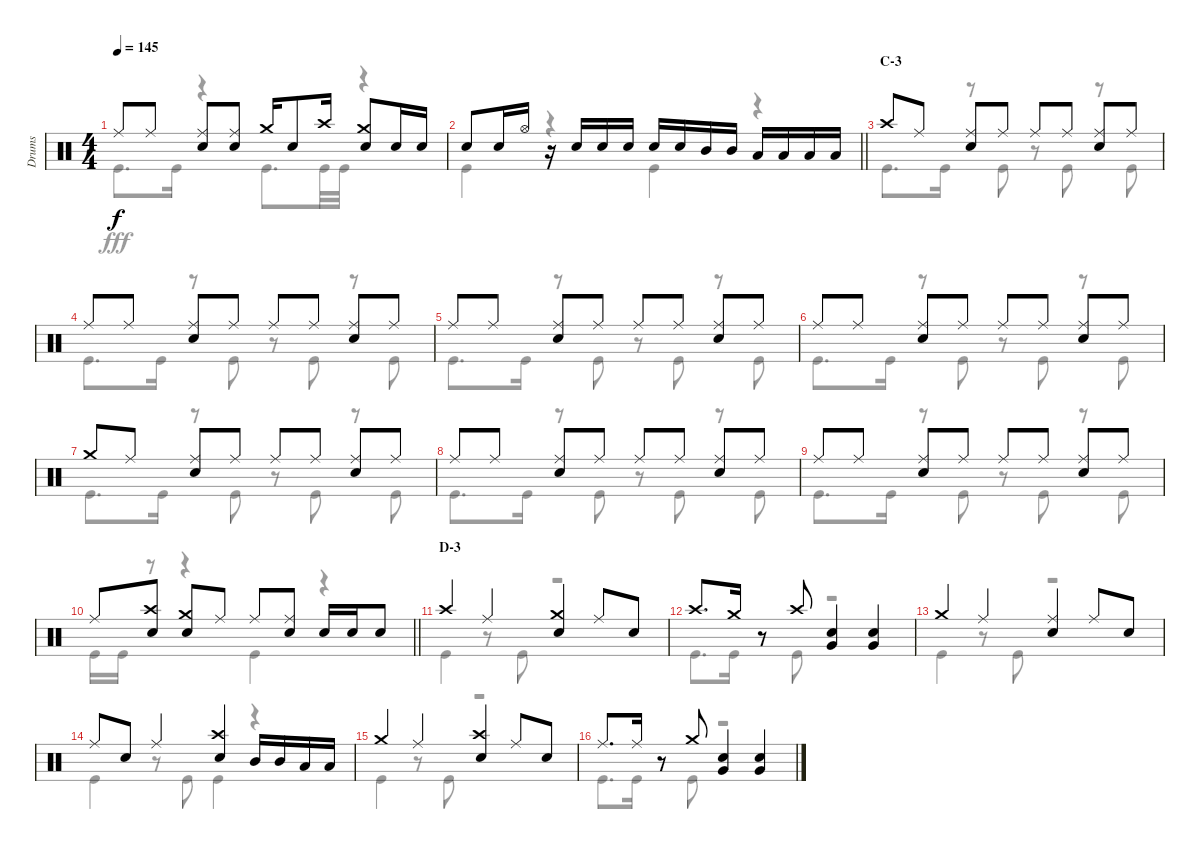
\track ("Drums" "Drums") {instrument percussion}
\staff {score}
\articulation defaults
\voice
\ts (4 4)
\tempo 145
\clef neutral
\ks c "Ride (middle)".8{dy f} "Ride (middle)".8
("Ride (middle)" "Snare (hit) 2").8 ("Ride (middle)" "Snare (hit) 2").8 "Crash medium (hit)".16 "Snare (hit) 2".8 "Crash high (hit)".16 ("Crash medium (hit)" "Snare (hit) 2").8 "Snare (hit) 2".16 "Snare (hit) 2".16 |
\barLineRight lightlight "Snare (hit) 2".8 "Snare (hit) 2".16 "Hi-Hat (open)".16
r.16 "Snare (hit) 2".16 "Snare (hit) 2".16 "Snare (hit) 2".16 "Snare (hit) 2".16 "Snare (hit) 2".16 "Mid Tom (hit)".16 "Mid Tom (hit)".16 "Low Tom (hit)".16 "Low Tom (hit)".16 "Low Tom (hit)".16 "Low Tom (hit)".16 |
\section ("" "C-3")
"Crash high (hit)".8 "Ride (middle)".8 ("Ride (middle)" "Snare (hit) 2").8 "Ride (middle)".8 "Ride (middle)".8 "Ride (middle)".8 ("Ride (middle)" "Snare (hit) 2").8 "Ride (middle)".8 |
"Ride (middle)".8 "Ride (middle)".8 ("Ride (middle)" "Snare (hit) 2").8 "Ride (middle)".8 "Ride (middle)".8 "Ride (middle)".8 ("Ride (middle)" "Snare (hit) 2").8 "Ride (middle)".8 |
"Ride (middle)".8 "Ride (middle)".8 ("Ride (middle)" "Snare (hit) 2").8 "Ride (middle)".8 "Ride (middle)".8 "Ride (middle)".8 ("Ride (middle)" "Snare (hit) 2").8 "Ride (middle)".8 |
"Ride (middle)".8 "Ride (middle)".8 ("Ride (middle)" "Snare (hit) 2").8 "Ride (middle)".8 "Ride (middle)".8 "Ride (middle)".8 ("Ride (middle)" "Snare (hit) 2").8 "Ride (middle)".8 |
"Crash medium (hit)".8 "Ride (middle)".8 ("Ride (middle)" "Snare (hit) 2").8 "Ride (middle)".8 "Ride (middle)".8 "Ride (middle)".8 ("Ride (middle)" "Snare (hit) 2").8 "Ride (middle)".8 |
"Ride (middle)".8 "Ride (middle)".8 ("Ride (middle)" "Snare (hit) 2").8 "Ride (middle)".8 "Ride (middle)".8 "Ride (middle)".8 ("Ride (middle)" "Snare (hit) 2").8 "Ride (middle)".8 |
"Ride (middle)".8 "Ride (middle)".8 ("Ride (middle)" "Snare (hit) 2").8 "Ride (middle)".8 "Ride (middle)".8 "Ride (middle)".8 ("Ride (middle)" "Snare (hit) 2").8 "Ride (middle)".8 |
\barLineRight lightlight "Ride (middle)".8
("Crash high (hit)" "Snare (hit) 2").8 ("Crash medium (hit)" "Snare (hit) 2").8 "Ride (middle)".8 "Ride (middle)".8 ("Ride (middle)" "Snare (hit) 2").8 "Snare (hit) 2".16 "Snare (hit) 2".16 "Snare (hit) 2".8 |
\section ("" "D-3")
"Crash high (hit)".4 "Ride (middle)".4 ("Crash medium (hit)" "Snare (hit) 2").4 "Ride (middle)".8 "Snare (hit) 2".8 |
"Crash high (hit)".8{d} "Crash medium (hit)".16 r.8 "Crash high (hit)".8 ("Snare (hit) 2" "Very Low Tom (hit)").4 ("Snare (hit) 2" "Very Low Tom (hit)").4 |
"Crash medium (hit)".4 "Ride (middle)".4 ("Ride (middle)" "Snare (hit) 2").4 "Ride (middle)".8 "Snare (hit) 2".8 |
"Ride (middle)".8 "Snare (hit) 2".8 "Ride (middle)".4 ("Crash high (hit)" "Snare (hit) 2").4 "Mid Tom (hit)".16 "Mid Tom (hit)".16 "Low Tom (hit)".16 "Low Tom (hit)".16 |
"Crash medium (hit)".4 "Ride (middle)".4 ("Crash high (hit)" "Snare (hit) 2").4 "Ride (middle)".8 "Snare (hit) 2".8 |
"Ride (middle)".8{d} "Ride (middle)".16 r.8 "Crash medium (hit)".8 ("Snare (hit) 2" "Very Low Tom (hit)").4 ("Snare (hit) 2" "Very Low Tom (hit)").4
\voice
\clef neutral
\ottava regular
\simile none
\ks c "Kick (hit)".8{d dy fff} "Kick (hit)".16
r.4 "Kick (hit)".8{d} "Kick (hit)".32 "Kick (hit)".32 r.4 |
\barLineRight lightlight "Kick (hit)".4
r.4 "Kick (hit)".4 r.4 |
"Kick (hit)".8{d} "Kick (hit)".16 r.8 "Kick (hit)".8 r.8 "Kick (hit)".8 r.8 "Kick (hit)".8 |
"Kick (hit)".8{d} "Kick (hit)".16 r.8 "Kick (hit)".8 r.8 "Kick (hit)".8 r.8 "Kick (hit)".8 |
"Kick (hit)".8{d} "Kick (hit)".16 r.8 "Kick (hit)".8 r.8 "Kick (hit)".8 r.8 "Kick (hit)".8 |
"Kick (hit)".8{d} "Kick (hit)".16 r.8 "Kick (hit)".8 r.8 "Kick (hit)".8 r.8 "Kick (hit)".8 |
"Kick (hit)".8{d} "Kick (hit)".16 r.8 "Kick (hit)".8 r.8 "Kick (hit)".8 r.8 "Kick (hit)".8 |
"Kick (hit)".8{d} "Kick (hit)".16 r.8 "Kick (hit)".8 r.8 "Kick (hit)".8 r.8 "Kick (hit)".8 |
"Kick (hit)".8{d} "Kick (hit)".16 r.8 "Kick (hit)".8 r.8 "Kick (hit)".8 r.8 "Kick (hit)".8 |
\barLineRight lightlight "Kick (hit)".16 "Kick (hit)".16
r.8 r.4 "Kick (hit)".4 r.4 |
"Kick (hit)".4 r.8 "Kick (hit)".8 r.2 |
"Kick (hit)".8{d} "Kick (hit)".16 r.8 "Kick (hit)".8 r.2 |
"Kick (hit)".4 r.8 "Kick (hit)".8 r.2 |
"Kick (hit)".4 r.8 "Kick (hit)".8 "Kick (hit)".4 r.4 |
"Kick (hit)".4 r.8 "Kick (hit)".8 r.2 |
"Kick (hit)".8{d} "Kick (hit)".16 r.8 "Kick (hit)".8 r.2
